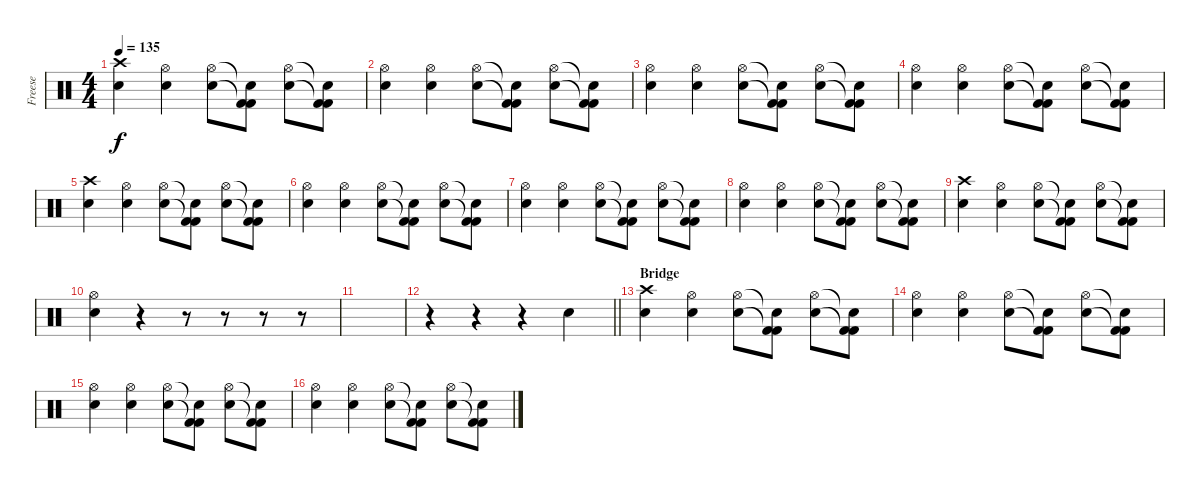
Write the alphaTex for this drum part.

\track ("Freese" "Freese") {instrument percussion}
\staff {score}
\articulation defaults
\ts (4 4)
\tempo 135
\clef neutral
\ks c
("Crash high (hit)" "Electric Snare (hit)").4{dy f} ("Hi-Hat (open)" "Electric Snare (hit)").4 ("Hi-Hat (open)" "Electric Snare (hit)").8 ("Snare (hit)"{t} "Kick (hit) 2"{t} "Kick (hit) 2").8 ("Hi-Hat (open)" "Electric Snare (hit)").8 ("Snare (hit)"{t} "Kick (hit) 2"{t} "Kick (hit) 2").8 |
("Hi-Hat (open)" "Electric Snare (hit)").4 ("Hi-Hat (open)" "Electric Snare (hit)").4 ("Hi-Hat (open)" "Electric Snare (hit)").8 ("Snare (hit)"{t} "Kick (hit) 2"{t} "Kick (hit) 2").8 ("Hi-Hat (open)" "Electric Snare (hit)").8 ("Snare (hit)"{t} "Kick (hit) 2"{t} "Kick (hit) 2").8 |
("Hi-Hat (open)" "Electric Snare (hit)").4 ("Hi-Hat (open)" "Electric Snare (hit)").4 ("Hi-Hat (open)" "Electric Snare (hit)").8 ("Snare (hit)"{t} "Kick (hit) 2"{t} "Kick (hit) 2").8 ("Hi-Hat (open)" "Electric Snare (hit)").8 ("Snare (hit)"{t} "Kick (hit) 2"{t} "Kick (hit) 2").8 |
("Hi-Hat (open)" "Electric Snare (hit)").4 ("Hi-Hat (open)" "Electric Snare (hit)").4 ("Hi-Hat (open)" "Electric Snare (hit)").8 ("Snare (hit)"{t} "Kick (hit) 2"{t} "Kick (hit) 2").8 ("Hi-Hat (open)" "Electric Snare (hit)").8 ("Snare (hit)"{t} "Kick (hit) 2"{t} "Kick (hit) 2").8 |
("Crash high (hit)" "Electric Snare (hit)").4 ("Hi-Hat (open)" "Electric Snare (hit)").4 ("Hi-Hat (open)" "Electric Snare (hit)").8 ("Snare (hit)"{t} "Kick (hit) 2"{t} "Kick (hit) 2").8 ("Hi-Hat (open)" "Electric Snare (hit)").8 ("Snare (hit)"{t} "Kick (hit) 2"{t} "Kick (hit) 2").8 |
("Hi-Hat (open)" "Electric Snare (hit)").4 ("Hi-Hat (open)" "Electric Snare (hit)").4 ("Hi-Hat (open)" "Electric Snare (hit)").8 ("Snare (hit)"{t} "Kick (hit) 2"{t} "Kick (hit) 2").8 ("Hi-Hat (open)" "Electric Snare (hit)").8 ("Snare (hit)"{t} "Kick (hit) 2"{t} "Kick (hit) 2").8 |
("Hi-Hat (open)" "Electric Snare (hit)").4 ("Hi-Hat (open)" "Electric Snare (hit)").4 ("Hi-Hat (open)" "Electric Snare (hit)").8 ("Snare (hit)"{t} "Kick (hit) 2"{t} "Kick (hit) 2").8 ("Hi-Hat (open)" "Electric Snare (hit)").8 ("Snare (hit)"{t} "Kick (hit) 2"{t} "Kick (hit) 2").8 |
("Hi-Hat (open)" "Electric Snare (hit)").4 ("Hi-Hat (open)" "Electric Snare (hit)").4 ("Hi-Hat (open)" "Electric Snare (hit)").8 ("Snare (hit)"{t} "Kick (hit) 2"{t} "Kick (hit) 2").8 ("Hi-Hat (open)" "Electric Snare (hit)").8 ("Snare (hit)"{t} "Kick (hit) 2"{t} "Kick (hit) 2").8 |
("Crash high (hit)" "Electric Snare (hit)").4 ("Hi-Hat (open)" "Electric Snare (hit)").4 ("Hi-Hat (open)" "Electric Snare (hit)").8 ("Snare (hit)"{t} "Kick (hit) 2"{t} "Kick (hit) 2").8 ("Hi-Hat (open)" "Electric Snare (hit)").8 ("Snare (hit)"{t} "Kick (hit) 2"{t} "Kick (hit) 2").8 |
("Hi-Hat (open)" "Electric Snare (hit)").4 r.4 r.8 r.8 r.8 r.8 |
|
\barLineRight lightlight
r.4 r.4 r.4 "Electric Snare (hit)".4 |
\section ("" "Bridge")
("Crash high (hit)" "Electric Snare (hit)").4 ("Hi-Hat (open)" "Electric Snare (hit)").4 ("Hi-Hat (open)" "Electric Snare (hit)").8 ("Snare (hit)"{t} "Kick (hit) 2"{t} "Kick (hit) 2").8 ("Hi-Hat (open)" "Electric Snare (hit)").8 ("Snare (hit)"{t} "Kick (hit) 2"{t} "Kick (hit) 2").8 |
("Hi-Hat (open)" "Electric Snare (hit)").4 ("Hi-Hat (open)" "Electric Snare (hit)").4 ("Hi-Hat (open)" "Electric Snare (hit)").8 ("Snare (hit)"{t} "Kick (hit) 2"{t} "Kick (hit) 2").8 ("Hi-Hat (open)" "Electric Snare (hit)").8 ("Snare (hit)"{t} "Kick (hit) 2"{t} "Kick (hit) 2").8 |
("Hi-Hat (open)" "Electric Snare (hit)").4 ("Hi-Hat (open)" "Electric Snare (hit)").4 ("Hi-Hat (open)" "Electric Snare (hit)").8 ("Snare (hit)"{t} "Kick (hit) 2"{t} "Kick (hit) 2").8 ("Hi-Hat (open)" "Electric Snare (hit)").8 ("Snare (hit)"{t} "Kick (hit) 2"{t} "Kick (hit) 2").8 |
("Hi-Hat (open)" "Electric Snare (hit)").4 ("Hi-Hat (open)" "Electric Snare (hit)").4 ("Hi-Hat (open)" "Electric Snare (hit)").8 ("Snare (hit)"{t} "Kick (hit) 2"{t} "Kick (hit) 2").8 ("Hi-Hat (open)" "Electric Snare (hit)").8 ("Snare (hit)"{t} "Kick (hit) 2"{t} "Kick (hit) 2").8
